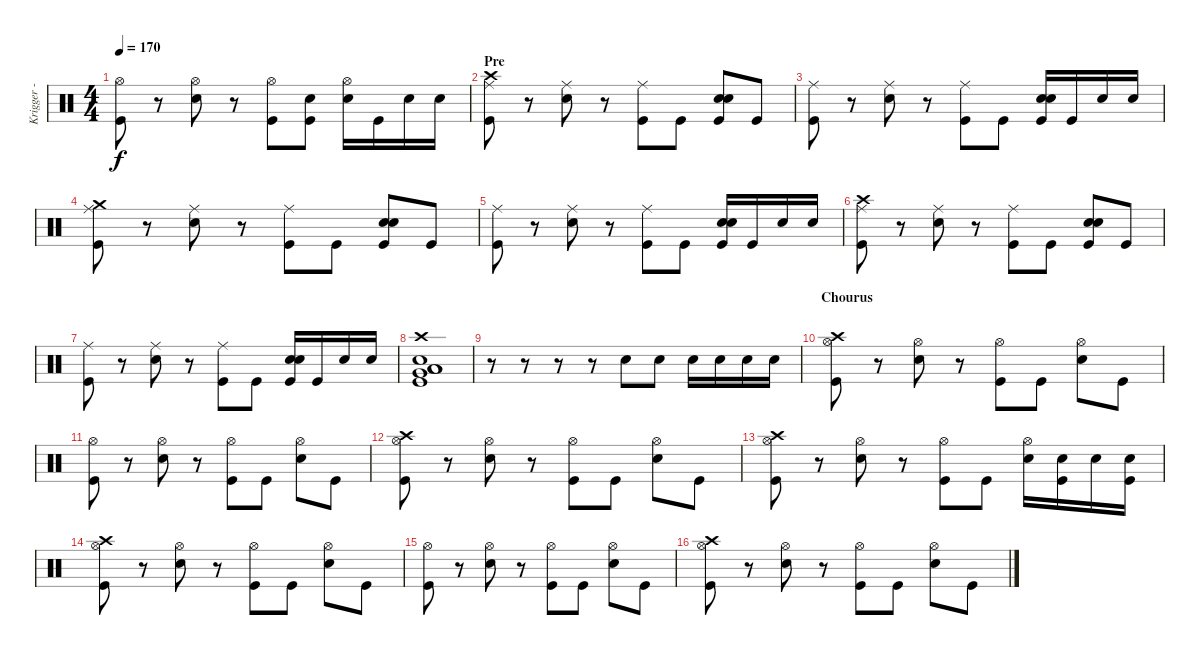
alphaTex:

\track ("Krigger - Drums" "Krigger - ") {instrument percussion}
\staff {score}
\articulation defaults
\ts (4 4)
\tempo 170
\clef neutral
\ks c
("Hi-Hat (open)" "Kick (hit)").8{dy f} r.8 ("Hi-Hat (open)" "Snare (hit) 2").8 r.8 ("Hi-Hat (open)" "Kick (hit)").8 ("Snare (hit) 2" "Kick (hit)").8 ("Hi-Hat (open)" "Snare (hit) 2").16 "Kick (hit)".16 "Snare (hit) 2".16 "Snare (hit) 2".16 |
\section ("" "Pre")
("Ride (middle)" "Crash high (hit)" "Kick (hit)").8 r.8 ("Ride (middle)" "Snare (hit) 2").8 r.8 ("Ride (middle)" "Kick (hit)").8 "Kick (hit)".8 ("Snare (hit)" "Snare (hit) 2" "Kick (hit)").8 "Kick (hit)".8 |
("Ride (middle)" "Kick (hit)").8 r.8 ("Ride (middle)" "Snare (hit) 2").8 r.8 ("Ride (middle)" "Kick (hit)").8 "Kick (hit)".8 ("Snare (hit)" "Snare (hit) 2" "Kick (hit)").16 "Kick (hit)".16 "Snare (hit) 2".16 "Snare (hit) 2".16 |
("Ride (middle)" "Crash medium (hit)" "Kick (hit)").8 r.8 ("Ride (middle)" "Snare (hit) 2").8 r.8 ("Ride (middle)" "Kick (hit)").8 "Kick (hit)".8 ("Snare (hit)" "Snare (hit) 2" "Kick (hit)").8 "Kick (hit)".8 |
("Ride (middle)" "Kick (hit)").8 r.8 ("Ride (middle)" "Snare (hit) 2").8 r.8 ("Ride (middle)" "Kick (hit)").8 "Kick (hit)".8 ("Snare (hit)" "Snare (hit) 2" "Kick (hit)").16 "Kick (hit)".16 "Snare (hit) 2".16 "Snare (hit) 2".16 |
("Ride (middle)" "Crash high (hit)" "Kick (hit)").8 r.8 ("Ride (middle)" "Snare (hit) 2").8 r.8 ("Ride (middle)" "Kick (hit)").8 "Kick (hit)".8 ("Snare (hit)" "Snare (hit) 2" "Kick (hit)").8 "Kick (hit)".8 |
("Ride (middle)" "Kick (hit)").8 r.8 ("Ride (middle)" "Snare (hit) 2").8 r.8 ("Ride (middle)" "Kick (hit)").8 "Kick (hit)".8 ("Snare (hit)" "Snare (hit) 2" "Kick (hit)").16 "Kick (hit)".16 "Snare (hit) 2".16 "Snare (hit) 2".16 |
("Kick (hit)" "Snare (hit) 2" "Crash high (hit)" "Low Tom (hit)" "Very Low Tom (hit)" "Low Floor Tom (hit)").1 |
r.8 r.8 r.8 r.8 "Snare (hit) 2".8 "Snare (hit) 2".8 "Snare (hit) 2".16 "Snare (hit) 2".16 "Snare (hit) 2".16 "Snare (hit) 2".16 |
\section ("" "Chourus")
("Hi-Hat (open)" "Crash high (hit)" "Kick (hit)").8 r.8 ("Hi-Hat (open)" "Snare (hit) 2").8 r.8 ("Hi-Hat (open)" "Kick (hit)").8 "Kick (hit)".8 ("Hi-Hat (open)" "Snare (hit) 2").8 "Kick (hit)".8 |
("Hi-Hat (open)" "Kick (hit)").8 r.8 ("Hi-Hat (open)" "Snare (hit) 2").8 r.8 ("Hi-Hat (open)" "Kick (hit)").8 "Kick (hit)".8 ("Hi-Hat (open)" "Snare (hit) 2").8 "Kick (hit)".8 |
("Hi-Hat (open)" "Crash high (hit)" "Kick (hit)").8 r.8 ("Hi-Hat (open)" "Snare (hit) 2").8 r.8 ("Hi-Hat (open)" "Kick (hit)").8 "Kick (hit)".8 ("Hi-Hat (open)" "Snare (hit) 2").8 "Kick (hit)".8 |
("Hi-Hat (open)" "Crash high (hit)" "Kick (hit)").8 r.8 ("Hi-Hat (open)" "Snare (hit) 2").8 r.8 ("Hi-Hat (open)" "Kick (hit)").8 "Kick (hit)".8 ("Hi-Hat (open)" "Snare (hit) 2").16 ("Snare (hit) 2" "Kick (hit)").16 "Snare (hit) 2".16 ("Snare (hit) 2" "Kick (hit)").16 |
("Hi-Hat (open)" "Crash high (hit)" "Kick (hit)").8 r.8 ("Hi-Hat (open)" "Snare (hit) 2").8 r.8 ("Hi-Hat (open)" "Kick (hit)").8 "Kick (hit)".8 ("Hi-Hat (open)" "Snare (hit) 2").8 "Kick (hit)".8 |
("Hi-Hat (open)" "Kick (hit)").8 r.8 ("Hi-Hat (open)" "Snare (hit) 2").8 r.8 ("Hi-Hat (open)" "Kick (hit)").8 "Kick (hit)".8 ("Hi-Hat (open)" "Snare (hit) 2").8 "Kick (hit)".8 |
("Hi-Hat (open)" "Crash high (hit)" "Kick (hit)").8 r.8 ("Hi-Hat (open)" "Snare (hit) 2").8 r.8 ("Hi-Hat (open)" "Kick (hit)").8 "Kick (hit)".8 ("Hi-Hat (open)" "Snare (hit) 2").8 "Kick (hit)".8
